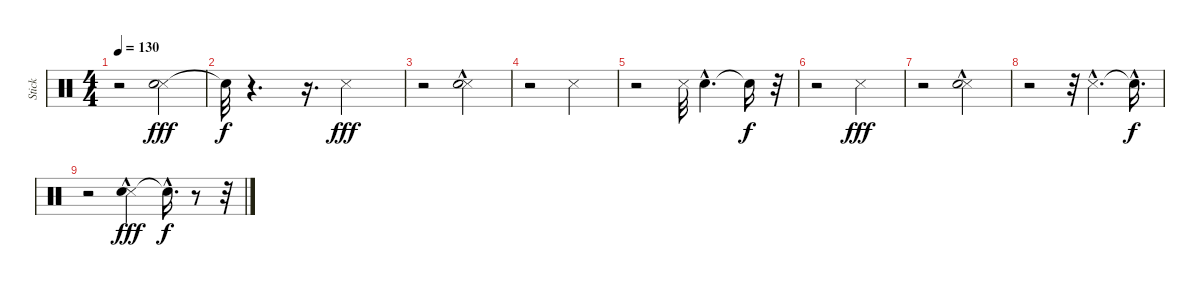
\track ("Stick" "Stick") {instrument percussion}
\staff {score}
\articulation defaults
\ts (4 4)
\tempo 130
\clef neutral
\ks c
r.2{dy f} ("Snare (side stick) 3" "Snare (hit) 2").2{dy fff} |
"Snare (hit)"{t}.32{dy f} r.4{d} r.16{d} "Snare (side stick) 3".2{dy fff} |
r.2 ("Snare (side stick) 3" "Snare (hit) 2"{hac}).2 |
r.2 "Snare (side stick) 3".2 |
r.2 "Snare (side stick) 3".32 "Snare (hit) 2"{hac}.4{d} "Snare (hit)"{t}.16{dy f} r.32 |
r.2 "Snare (side stick) 3".2{dy fff} |
r.2 ("Snare (side stick) 3" "Snare (hit) 2"{hac}).2 |
r.2 r.32 "Snare (side stick) 3"{hac}.4{d} "Snare (hit)"{hac t}.16{d dy f} |
r.2 ("Snare (side stick) 3"{hac} "Snare (hit) 2").4{dy fff} "Snare (hit)"{hac t}.16{d dy f} r.8 r.32
